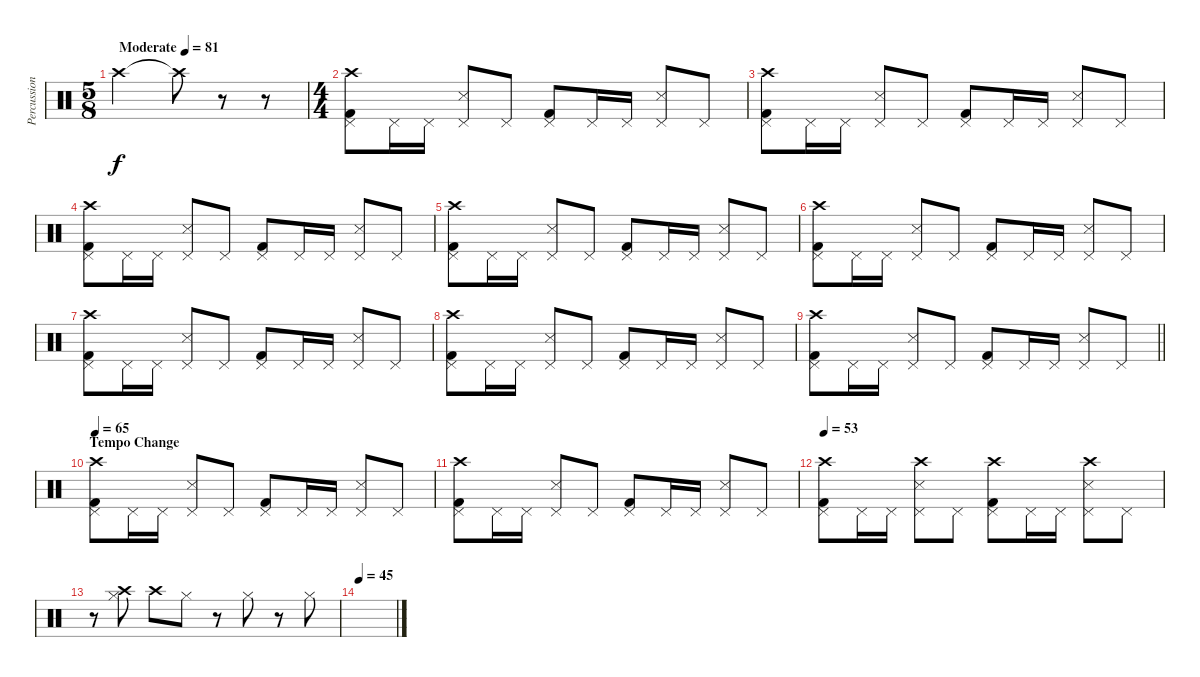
\track ("Percussion" "Percussion") {instrument percussion}
\staff {score}
\articulation defaults
\ts (5 8)
\tempo (81 "Moderate")
\clef neutral
\ks c "Crash high (hit)".2{dy f} "Crash high (hit)"{t}.8
r.8 r.8 |
\ts (4 4)
("Pedal Hi-Hat (hit)" "Kick (hit) 2" "Crash high (hit)").8 "Pedal Hi-Hat (hit)".16 "Pedal Hi-Hat (hit)".16 ("Pedal Hi-Hat (hit)" "Snare (side stick) 3").8 "Pedal Hi-Hat (hit)".8 ("Pedal Hi-Hat (hit)" "Kick (hit) 2").8 "Pedal Hi-Hat (hit)".16 "Pedal Hi-Hat (hit)".16 ("Pedal Hi-Hat (hit)" "Snare (side stick) 3").8 "Pedal Hi-Hat (hit)".8 |
("Pedal Hi-Hat (hit)" "Kick (hit) 2" "Crash high (hit)").8 "Pedal Hi-Hat (hit)".16 "Pedal Hi-Hat (hit)".16 ("Pedal Hi-Hat (hit)" "Snare (side stick) 3").8 "Pedal Hi-Hat (hit)".8 ("Pedal Hi-Hat (hit)" "Kick (hit) 2").8 "Pedal Hi-Hat (hit)".16 "Pedal Hi-Hat (hit)".16 ("Pedal Hi-Hat (hit)" "Snare (side stick) 3").8 "Pedal Hi-Hat (hit)".8 |
("Pedal Hi-Hat (hit)" "Kick (hit) 2" "Crash high (hit)").8 "Pedal Hi-Hat (hit)".16 "Pedal Hi-Hat (hit)".16 ("Pedal Hi-Hat (hit)" "Snare (side stick) 3").8 "Pedal Hi-Hat (hit)".8 ("Pedal Hi-Hat (hit)" "Kick (hit) 2").8 "Pedal Hi-Hat (hit)".16 "Pedal Hi-Hat (hit)".16 ("Pedal Hi-Hat (hit)" "Snare (side stick) 3").8 "Pedal Hi-Hat (hit)".8 |
("Pedal Hi-Hat (hit)" "Kick (hit) 2" "Crash high (hit)").8 "Pedal Hi-Hat (hit)".16 "Pedal Hi-Hat (hit)".16 ("Pedal Hi-Hat (hit)" "Snare (side stick) 3").8 "Pedal Hi-Hat (hit)".8 ("Pedal Hi-Hat (hit)" "Kick (hit) 2").8 "Pedal Hi-Hat (hit)".16 "Pedal Hi-Hat (hit)".16 ("Pedal Hi-Hat (hit)" "Snare (side stick) 3").8 "Pedal Hi-Hat (hit)".8 |
("Pedal Hi-Hat (hit)" "Kick (hit) 2" "Crash high (hit)").8 "Pedal Hi-Hat (hit)".16 "Pedal Hi-Hat (hit)".16 ("Pedal Hi-Hat (hit)" "Snare (side stick) 3").8 "Pedal Hi-Hat (hit)".8 ("Pedal Hi-Hat (hit)" "Kick (hit) 2").8 "Pedal Hi-Hat (hit)".16 "Pedal Hi-Hat (hit)".16 ("Pedal Hi-Hat (hit)" "Snare (side stick) 3").8 "Pedal Hi-Hat (hit)".8 |
("Pedal Hi-Hat (hit)" "Kick (hit) 2" "Crash high (hit)").8 "Pedal Hi-Hat (hit)".16 "Pedal Hi-Hat (hit)".16 ("Pedal Hi-Hat (hit)" "Snare (side stick) 3").8 "Pedal Hi-Hat (hit)".8 ("Pedal Hi-Hat (hit)" "Kick (hit) 2").8 "Pedal Hi-Hat (hit)".16 "Pedal Hi-Hat (hit)".16 ("Pedal Hi-Hat (hit)" "Snare (side stick) 3").8 "Pedal Hi-Hat (hit)".8 |
("Pedal Hi-Hat (hit)" "Kick (hit) 2" "Crash high (hit)").8 "Pedal Hi-Hat (hit)".16 "Pedal Hi-Hat (hit)".16 ("Pedal Hi-Hat (hit)" "Snare (side stick) 3").8 "Pedal Hi-Hat (hit)".8 ("Pedal Hi-Hat (hit)" "Kick (hit) 2").8 "Pedal Hi-Hat (hit)".16 "Pedal Hi-Hat (hit)".16 ("Pedal Hi-Hat (hit)" "Snare (side stick) 3").8 "Pedal Hi-Hat (hit)".8 |
\barLineRight lightlight
("Pedal Hi-Hat (hit)" "Kick (hit) 2" "Crash high (hit)").8 "Pedal Hi-Hat (hit)".16 "Pedal Hi-Hat (hit)".16 ("Pedal Hi-Hat (hit)" "Snare (side stick) 3").8 "Pedal Hi-Hat (hit)".8 ("Pedal Hi-Hat (hit)" "Kick (hit) 2").8 "Pedal Hi-Hat (hit)".16 "Pedal Hi-Hat (hit)".16 ("Pedal Hi-Hat (hit)" "Snare (side stick) 3").8 "Pedal Hi-Hat (hit)".8 |
\section ("" "Tempo Change")
\tempo 66
\tempo 65
("Pedal Hi-Hat (hit)" "Kick (hit) 2" "Crash high (hit)").8 "Pedal Hi-Hat (hit)".16 "Pedal Hi-Hat (hit)".16 ("Pedal Hi-Hat (hit)" "Snare (side stick) 3").8 "Pedal Hi-Hat (hit)".8 ("Pedal Hi-Hat (hit)" "Kick (hit) 2").8 "Pedal Hi-Hat (hit)".16 "Pedal Hi-Hat (hit)".16 ("Pedal Hi-Hat (hit)" "Snare (side stick) 3").8 "Pedal Hi-Hat (hit)".8 |
("Pedal Hi-Hat (hit)" "Kick (hit) 2" "Crash high (hit)").8 "Pedal Hi-Hat (hit)".16 "Pedal Hi-Hat (hit)".16 ("Pedal Hi-Hat (hit)" "Snare (side stick) 3").8 "Pedal Hi-Hat (hit)".8 ("Pedal Hi-Hat (hit)" "Kick (hit) 2").8 "Pedal Hi-Hat (hit)".16 "Pedal Hi-Hat (hit)".16 ("Pedal Hi-Hat (hit)" "Snare (side stick) 3").8 "Pedal Hi-Hat (hit)".8 |
\tempo 53
("Pedal Hi-Hat (hit)" "Kick (hit) 2" "Crash high (hit)").8 "Pedal Hi-Hat (hit)".16 "Pedal Hi-Hat (hit)".16 ("Pedal Hi-Hat (hit)" "Snare (side stick) 3" "Crash high (hit)").8 "Pedal Hi-Hat (hit)".8 ("Pedal Hi-Hat (hit)" "Kick (hit) 2" "Crash high (hit)").8 "Pedal Hi-Hat (hit)".16 "Pedal Hi-Hat (hit)".16 ("Pedal Hi-Hat (hit)" "Snare (side stick) 3" "Crash high (hit)").8 "Pedal Hi-Hat (hit)".8 |
r.8 ("Hi-Hat (closed)" "Crash high (hit)").8 "Crash high (hit)".8 "Hi-Hat (closed)".8 r.8 "Hi-Hat (closed)".8 r.8 "Hi-Hat (closed)".8 |
\tempo 45
